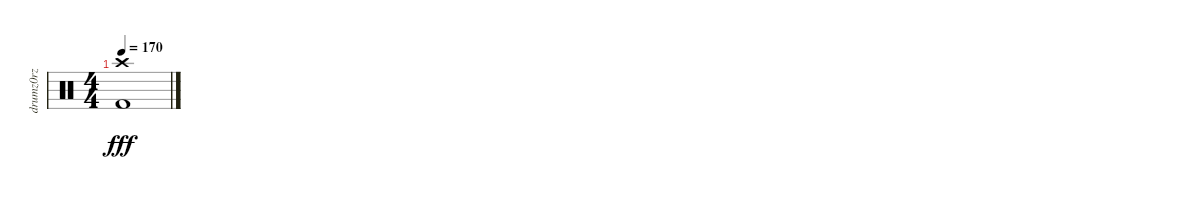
\track ("drumz0rz" "drumz0rz") {instrument percussion}
\staff {score}
\articulation defaults
\ts (4 4)
\tempo 170
\clef neutral
\ks c
("Crash high (hit)" "Kick (hit) 2").1{dy fff}
